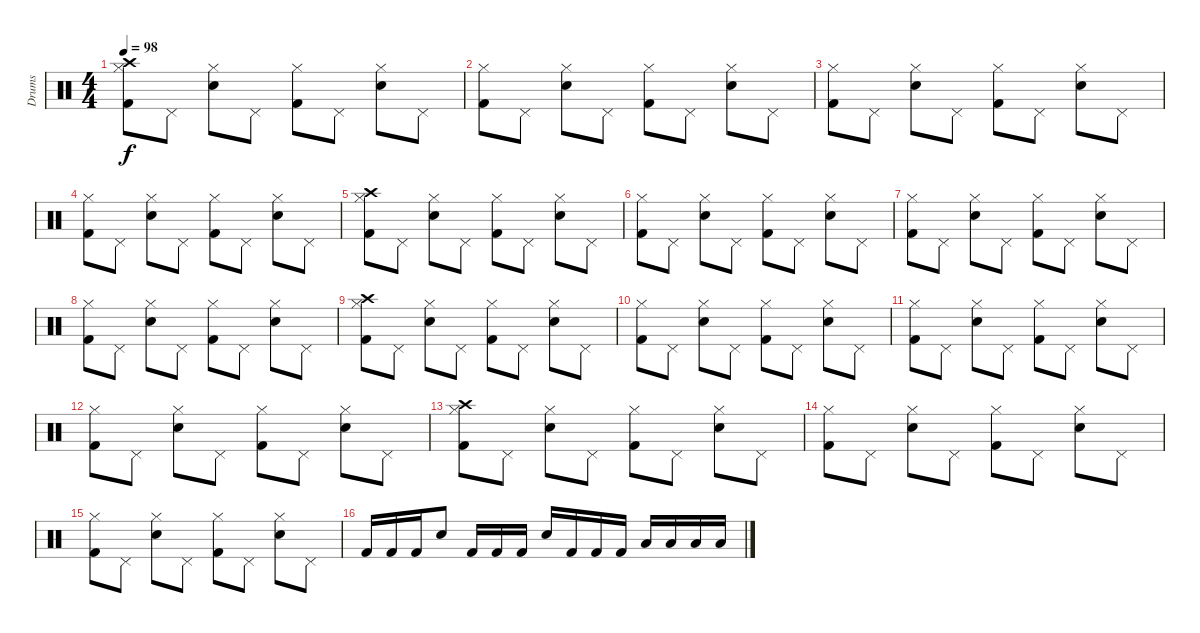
\track ("Drums" "Drums") {instrument percussion}
\staff {score}
\articulation defaults
\ts (4 4)
\tempo 98
\clef neutral
\ks c
("Hi-Hat (closed)" "Kick (hit) 2" "Crash high (hit)").8{dy f} "Pedal Hi-Hat (hit)".8 ("Hi-Hat (closed)" "Snare (hit) 2").8 "Pedal Hi-Hat (hit)".8 ("Hi-Hat (closed)" "Kick (hit) 2").8 "Pedal Hi-Hat (hit)".8 ("Hi-Hat (closed)" "Snare (hit) 2").8 "Pedal Hi-Hat (hit)".8 |
("Hi-Hat (closed)" "Kick (hit) 2").8 "Pedal Hi-Hat (hit)".8 ("Hi-Hat (closed)" "Snare (hit) 2").8 "Pedal Hi-Hat (hit)".8 ("Hi-Hat (closed)" "Kick (hit) 2").8 "Pedal Hi-Hat (hit)".8 ("Hi-Hat (closed)" "Snare (hit) 2").8 "Pedal Hi-Hat (hit)".8 |
("Hi-Hat (closed)" "Kick (hit) 2").8 "Pedal Hi-Hat (hit)".8 ("Hi-Hat (closed)" "Snare (hit) 2").8 "Pedal Hi-Hat (hit)".8 ("Hi-Hat (closed)" "Kick (hit) 2").8 "Pedal Hi-Hat (hit)".8 ("Hi-Hat (closed)" "Snare (hit) 2").8 "Pedal Hi-Hat (hit)".8 |
("Hi-Hat (closed)" "Kick (hit) 2").8 "Pedal Hi-Hat (hit)".8 ("Hi-Hat (closed)" "Snare (hit) 2").8 "Pedal Hi-Hat (hit)".8 ("Hi-Hat (closed)" "Kick (hit) 2").8 "Pedal Hi-Hat (hit)".8 ("Hi-Hat (closed)" "Snare (hit) 2").8 "Pedal Hi-Hat (hit)".8 |
("Hi-Hat (closed)" "Kick (hit) 2" "Crash high (hit)").8 "Pedal Hi-Hat (hit)".8 ("Hi-Hat (closed)" "Snare (hit) 2").8 "Pedal Hi-Hat (hit)".8 ("Hi-Hat (closed)" "Kick (hit) 2").8 "Pedal Hi-Hat (hit)".8 ("Hi-Hat (closed)" "Snare (hit) 2").8 "Pedal Hi-Hat (hit)".8 |
("Hi-Hat (closed)" "Kick (hit) 2").8 "Pedal Hi-Hat (hit)".8 ("Hi-Hat (closed)" "Snare (hit) 2").8 "Pedal Hi-Hat (hit)".8 ("Hi-Hat (closed)" "Kick (hit) 2").8 "Pedal Hi-Hat (hit)".8 ("Hi-Hat (closed)" "Snare (hit) 2").8 "Pedal Hi-Hat (hit)".8 |
("Hi-Hat (closed)" "Kick (hit) 2").8 "Pedal Hi-Hat (hit)".8 ("Hi-Hat (closed)" "Snare (hit) 2").8 "Pedal Hi-Hat (hit)".8 ("Hi-Hat (closed)" "Kick (hit) 2").8 "Pedal Hi-Hat (hit)".8 ("Hi-Hat (closed)" "Snare (hit) 2").8 "Pedal Hi-Hat (hit)".8 |
("Hi-Hat (closed)" "Kick (hit) 2").8 "Pedal Hi-Hat (hit)".8 ("Hi-Hat (closed)" "Snare (hit) 2").8 "Pedal Hi-Hat (hit)".8 ("Hi-Hat (closed)" "Kick (hit) 2").8 "Pedal Hi-Hat (hit)".8 ("Hi-Hat (closed)" "Snare (hit) 2").8 "Pedal Hi-Hat (hit)".8 |
("Hi-Hat (closed)" "Kick (hit) 2" "Crash high (hit)").8 "Pedal Hi-Hat (hit)".8 ("Hi-Hat (closed)" "Snare (hit) 2").8 "Pedal Hi-Hat (hit)".8 ("Hi-Hat (closed)" "Kick (hit) 2").8 "Pedal Hi-Hat (hit)".8 ("Hi-Hat (closed)" "Snare (hit) 2").8 "Pedal Hi-Hat (hit)".8 |
("Hi-Hat (closed)" "Kick (hit) 2").8 "Pedal Hi-Hat (hit)".8 ("Hi-Hat (closed)" "Snare (hit) 2").8 "Pedal Hi-Hat (hit)".8 ("Hi-Hat (closed)" "Kick (hit) 2").8 "Pedal Hi-Hat (hit)".8 ("Hi-Hat (closed)" "Snare (hit) 2").8 "Pedal Hi-Hat (hit)".8 |
("Hi-Hat (closed)" "Kick (hit) 2").8 "Pedal Hi-Hat (hit)".8 ("Hi-Hat (closed)" "Snare (hit) 2").8 "Pedal Hi-Hat (hit)".8 ("Hi-Hat (closed)" "Kick (hit) 2").8 "Pedal Hi-Hat (hit)".8 ("Hi-Hat (closed)" "Snare (hit) 2").8 "Pedal Hi-Hat (hit)".8 |
("Hi-Hat (closed)" "Kick (hit) 2").8 "Pedal Hi-Hat (hit)".8 ("Hi-Hat (closed)" "Snare (hit) 2").8 "Pedal Hi-Hat (hit)".8 ("Hi-Hat (closed)" "Kick (hit) 2").8 "Pedal Hi-Hat (hit)".8 ("Hi-Hat (closed)" "Snare (hit) 2").8 "Pedal Hi-Hat (hit)".8 |
("Hi-Hat (closed)" "Kick (hit) 2" "Crash high (hit)").8 "Pedal Hi-Hat (hit)".8 ("Hi-Hat (closed)" "Snare (hit) 2").8 "Pedal Hi-Hat (hit)".8 ("Hi-Hat (closed)" "Kick (hit) 2").8 "Pedal Hi-Hat (hit)".8 ("Hi-Hat (closed)" "Snare (hit) 2").8 "Pedal Hi-Hat (hit)".8 |
("Hi-Hat (closed)" "Kick (hit) 2").8 "Pedal Hi-Hat (hit)".8 ("Hi-Hat (closed)" "Snare (hit) 2").8 "Pedal Hi-Hat (hit)".8 ("Hi-Hat (closed)" "Kick (hit) 2").8 "Pedal Hi-Hat (hit)".8 ("Hi-Hat (closed)" "Snare (hit) 2").8 "Pedal Hi-Hat (hit)".8 |
("Hi-Hat (closed)" "Kick (hit) 2").8 "Pedal Hi-Hat (hit)".8 ("Hi-Hat (closed)" "Snare (hit) 2").8 "Pedal Hi-Hat (hit)".8 ("Hi-Hat (closed)" "Kick (hit) 2").8 "Pedal Hi-Hat (hit)".8 ("Hi-Hat (closed)" "Snare (hit) 2").8 "Pedal Hi-Hat (hit)".8 |
"Kick (hit) 2".16 "Kick (hit) 2".16 "Kick (hit) 2".16 "Snare (hit) 2".8 "Kick (hit) 2".16 "Kick (hit) 2".16 "Kick (hit) 2".16 "Snare (hit) 2".16 "Kick (hit) 2".16 "Kick (hit) 2".16 "Kick (hit) 2".16 "Low Tom (hit)".16 "Low Tom (hit)".16 "Low Tom (hit)".16 "Low Tom (hit)".16
